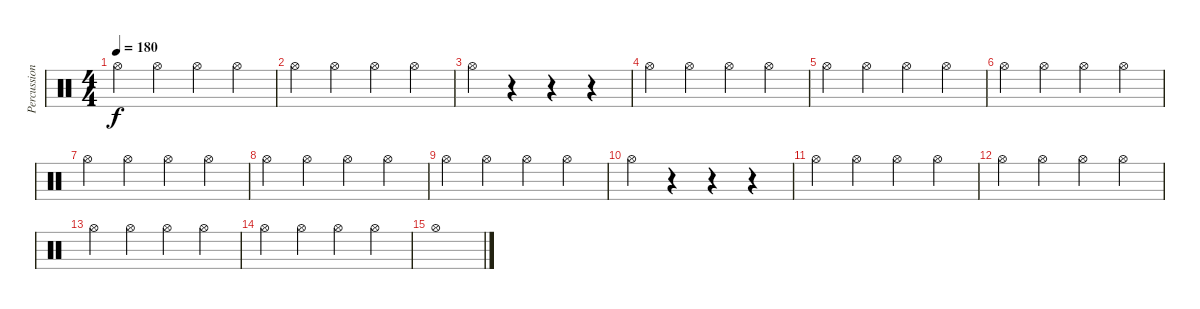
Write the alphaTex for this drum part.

\track ("Percussion" "Percussion") {instrument percussion}
\staff {score}
\articulation defaults
\ts (4 4)
\tempo 180
\clef neutral
\ks c "Hi-Hat (open)".4{dy f} "Hi-Hat (open)".4 "Hi-Hat (open)".4 "Hi-Hat (open)".4
|
"Hi-Hat (open)".4 "Hi-Hat (open)".4 "Hi-Hat (open)".4 "Hi-Hat (open)".4 |
"Hi-Hat (open)".4 r.4 r.4 r.4 |
"Hi-Hat (open)".4 "Hi-Hat (open)".4 "Hi-Hat (open)".4 "Hi-Hat (open)".4 |
"Hi-Hat (open)".4 "Hi-Hat (open)".4 "Hi-Hat (open)".4 "Hi-Hat (open)".4 |
"Hi-Hat (open)".4 "Hi-Hat (open)".4 "Hi-Hat (open)".4 "Hi-Hat (open)".4 |
"Hi-Hat (open)".4 "Hi-Hat (open)".4 "Hi-Hat (open)".4 "Hi-Hat (open)".4 |
"Hi-Hat (open)".4 "Hi-Hat (open)".4 "Hi-Hat (open)".4 "Hi-Hat (open)".4 |
"Hi-Hat (open)".4 "Hi-Hat (open)".4 "Hi-Hat (open)".4 "Hi-Hat (open)".4 |
"Hi-Hat (open)".4 r.4 r.4 r.4 |
"Hi-Hat (open)".4 "Hi-Hat (open)".4 "Hi-Hat (open)".4 "Hi-Hat (open)".4 |
"Hi-Hat (open)".4 "Hi-Hat (open)".4 "Hi-Hat (open)".4 "Hi-Hat (open)".4 |
"Hi-Hat (open)".4 "Hi-Hat (open)".4 "Hi-Hat (open)".4 "Hi-Hat (open)".4 |
"Hi-Hat (open)".4 "Hi-Hat (open)".4 "Hi-Hat (open)".4 "Hi-Hat (open)".4 |
"Hi-Hat (open)".1
